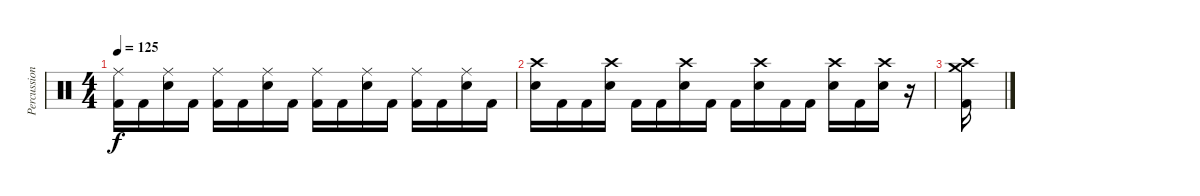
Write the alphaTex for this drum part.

\track ("Percussion" "Percussion") {instrument percussion}
\staff {score}
\articulation defaults
\ts (4 4)
\tempo 125
\clef neutral
\ks c
("Kick (hit) 2" "Ride (middle)").16{dy f} "Kick (hit) 2".16 ("Snare (hit) 2" "Ride (middle)").16 "Kick (hit) 2".16 ("Kick (hit) 2" "Ride (middle)").16 "Kick (hit) 2".16 ("Snare (hit) 2" "Ride (middle)").16 "Kick (hit) 2".16 ("Kick (hit) 2" "Ride (middle)").16 "Kick (hit) 2".16 ("Snare (hit) 2" "Ride (middle)").16 "Kick (hit) 2".16 ("Kick (hit) 2" "Ride (middle)").16 "Kick (hit) 2".16 ("Snare (hit) 2" "Ride (middle)").16 "Kick (hit) 2".16 |
("Snare (hit) 2" "Crash high (hit)").16 "Kick (hit) 2".16 "Kick (hit) 2".16 ("Snare (hit) 2" "Crash high (hit)").16 "Kick (hit) 2".16 "Kick (hit) 2".16 ("Snare (hit) 2" "Crash high (hit)").16 "Kick (hit) 2".16 "Kick (hit) 2".16 ("Snare (hit) 2" "Crash high (hit)").16 "Kick (hit) 2".16 "Kick (hit) 2".16 ("Snare (hit) 2" "Crash high (hit)").16 "Kick (hit) 2".16 ("Snare (hit) 2" "Crash high (hit)").16 r.16 |
("Crash medium (hit)" "Kick (hit) 2" "Crash high (hit)").16
